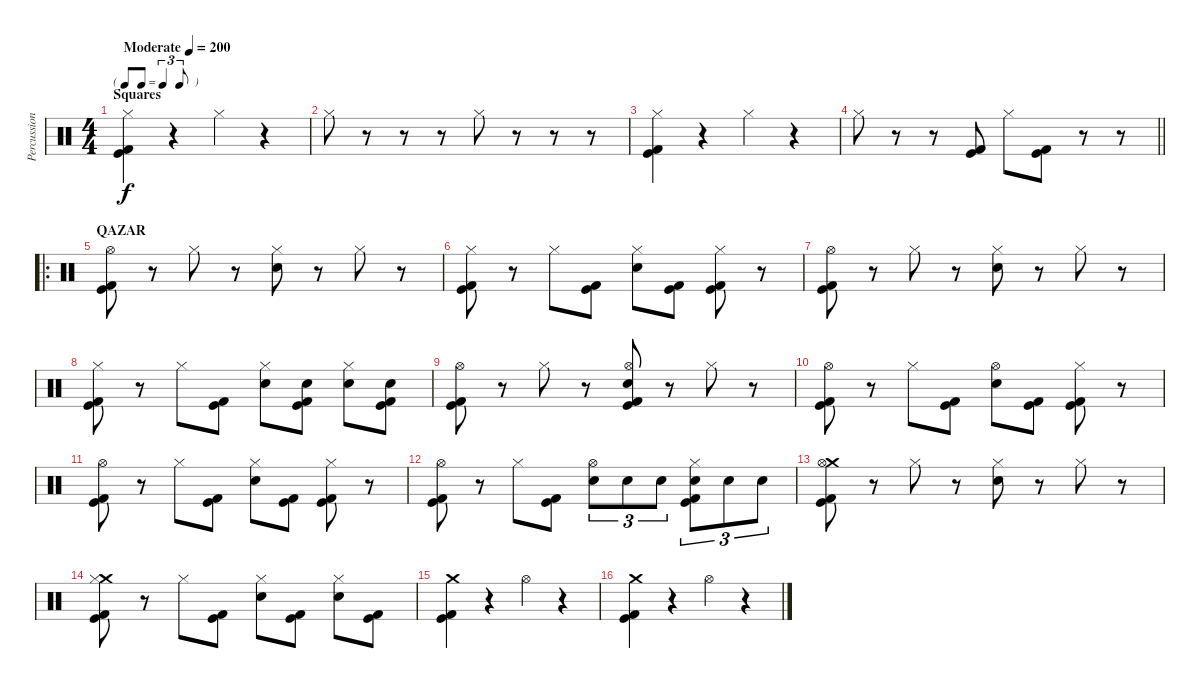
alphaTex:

\track ("Percussion" "Percussion") {instrument percussion}
\staff {score}
\articulation defaults
\ts (4 4)
\tf triplet8th
\section ("" "Squares")
\tempo (200 "Moderate")
\clef neutral
\ks c
("Hi-Hat (closed)" "Kick (hit) 2" "Kick (hit)").4{dy f volume 16 balance 8} r.4 "Hi-Hat (closed)".4 r.4 |
"Hi-Hat (closed)".8 r.8 r.8 r.8 "Hi-Hat (closed)".8 r.8 r.8 r.8 |
("Hi-Hat (closed)" "Kick (hit) 2" "Kick (hit)").4 r.4 "Hi-Hat (closed)".4 r.4 |
\barLineRight lightlight "Hi-Hat (closed)".8
r.8 r.8 ("Kick (hit) 2" "Kick (hit)").8 "Hi-Hat (closed)".8 ("Kick (hit) 2" "Kick (hit)").8 r.8 r.8 |
\ro
\section ("" "QAZAR")
("Hi-Hat (open)" "Kick (hit) 2" "Kick (hit)").8 r.8 "Hi-Hat (closed)".8 r.8 ("Hi-Hat (closed)" "Snare (hit) 2").8 r.8 "Hi-Hat (closed)".8 r.8 |
("Hi-Hat (closed)" "Kick (hit) 2" "Kick (hit)").8 r.8 "Hi-Hat (closed)".8 ("Kick (hit) 2" "Kick (hit)").8 ("Hi-Hat (closed)" "Snare (hit) 2").8 ("Kick (hit) 2" "Kick (hit)").8 ("Hi-Hat (closed)" "Kick (hit) 2" "Kick (hit)").8 r.8 |
("Hi-Hat (open)" "Kick (hit) 2" "Kick (hit)").8 r.8 "Hi-Hat (closed)".8 r.8 ("Hi-Hat (closed)" "Snare (hit) 2").8 r.8 "Hi-Hat (closed)".8 r.8 |
("Hi-Hat (closed)" "Kick (hit) 2" "Kick (hit)").8 r.8 "Hi-Hat (closed)".8 ("Kick (hit) 2" "Kick (hit)").8 ("Hi-Hat (closed)" "Snare (hit) 2").8 ("Snare (hit) 2" "Kick (hit) 2" "Kick (hit)").8 ("Hi-Hat (closed)" "Snare (hit) 2").8 ("Snare (hit) 2" "Kick (hit) 2" "Kick (hit)").8 |
("Hi-Hat (open)" "Kick (hit) 2" "Kick (hit)").8 r.8 "Hi-Hat (closed)".8 r.8 ("Hi-Hat (open)" "Snare (hit) 2" "Kick (hit) 2" "Kick (hit)").8 r.8 "Hi-Hat (closed)".8 r.8 |
("Hi-Hat (open)" "Kick (hit) 2" "Kick (hit)").8 r.8 "Hi-Hat (closed)".8 ("Kick (hit) 2" "Kick (hit)").8 ("Hi-Hat (open)" "Snare (hit) 2").8 ("Kick (hit) 2" "Kick (hit)").8 ("Hi-Hat (closed)" "Kick (hit) 2" "Kick (hit)").8 r.8 |
("Hi-Hat (open)" "Kick (hit) 2" "Kick (hit)").8 r.8 "Hi-Hat (closed)".8 ("Kick (hit) 2" "Kick (hit)").8 ("Hi-Hat (closed)" "Snare (hit) 2").8 ("Kick (hit) 2" "Kick (hit)").8 ("Hi-Hat (closed)" "Kick (hit) 2" "Kick (hit)").8 r.8 |
("Hi-Hat (open)" "Kick (hit) 2" "Kick (hit)").8 r.8 "Hi-Hat (closed)".8 ("Kick (hit) 2" "Kick (hit)").8 ("Hi-Hat (open)" "Snare (hit) 2").8{tu (3 2)} "Snare (hit) 2".8{tu (3 2)} "Snare (hit) 2".8{tu (3 2)} ("Hi-Hat (closed)" "Snare (hit) 2" "Kick (hit) 2" "Kick (hit)").8{tu (3 2)} "Snare (hit) 2".8{tu (3 2)} "Snare (hit) 2".8{tu (3 2)} |
("Crash medium (hit)" "Hi-Hat (open)" "Kick (hit) 2" "Kick (hit)").8 r.8 "Hi-Hat (closed)".8 r.8 ("Hi-Hat (closed)" "Snare (hit) 2").8 r.8 "Hi-Hat (closed)".8 r.8 |
("Crash medium (hit)" "Hi-Hat (closed)" "Kick (hit) 2" "Kick (hit)").8 r.8 "Hi-Hat (closed)".8 ("Kick (hit) 2" "Kick (hit)").8 ("Hi-Hat (closed)" "Snare (hit) 2").8 ("Kick (hit) 2" "Kick (hit)").8 ("Hi-Hat (closed)" "Snare (hit) 2").8 ("Kick (hit) 2" "Kick (hit)").8 |
("Crash medium (hit)" "Kick (hit) 2" "Kick (hit)").4 r.4 "Hi-Hat (open)".4 r.4 |
("Crash medium (hit)" "Kick (hit) 2" "Kick (hit)").4 r.4 "Hi-Hat (open)".4 r.4
